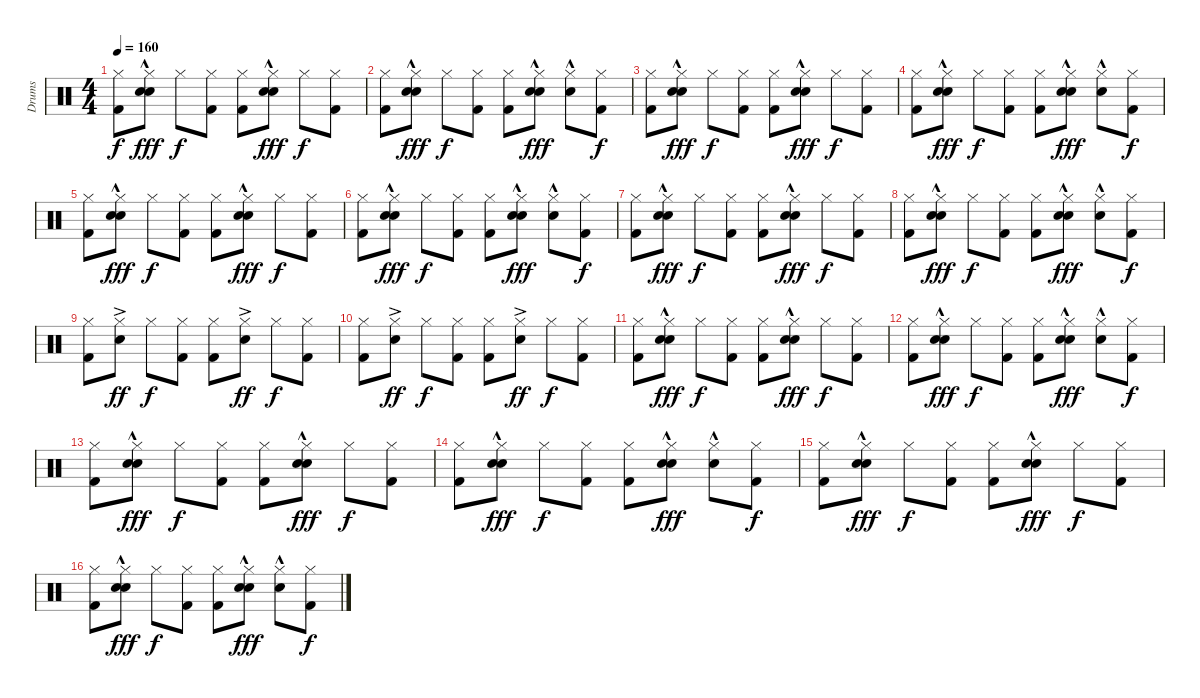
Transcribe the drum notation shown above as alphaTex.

\track ("Drums" "Drums") {instrument percussion}
\staff {score}
\articulation defaults
\ts (4 4)
\tempo 160
\clef neutral
\ks c
("Hi-Hat (closed)" "Kick (hit) 2").8{dy f} ("Hi-Hat (closed)" "Electric Snare (hit)" "Hand Clap (hit)"{hac}).8{dy fff} "Hi-Hat (closed)".8{dy f} ("Hi-Hat (closed)" "Kick (hit) 2").8 ("Hi-Hat (closed)" "Kick (hit) 2").8 ("Hi-Hat (closed)" "Electric Snare (hit)" "Hand Clap (hit)"{hac}).8{dy fff} "Hi-Hat (closed)".8{dy f} ("Hi-Hat (closed)" "Kick (hit) 2").8 |
("Hi-Hat (closed)" "Kick (hit) 2").8 ("Hi-Hat (closed)" "Electric Snare (hit)" "Hand Clap (hit)"{hac}).8{dy fff} "Hi-Hat (closed)".8{dy f} ("Hi-Hat (closed)" "Kick (hit) 2").8 ("Hi-Hat (closed)" "Kick (hit) 2").8 ("Hi-Hat (closed)" "Electric Snare (hit)" "Hand Clap (hit)"{hac}).8{dy fff} ("Hi-Hat (closed)" "Hand Clap (hit)"{hac}).8 ("Hi-Hat (closed)" "Kick (hit) 2").8{dy f} |
("Hi-Hat (closed)" "Kick (hit) 2").8 ("Hi-Hat (closed)" "Electric Snare (hit)" "Hand Clap (hit)"{hac}).8{dy fff} "Hi-Hat (closed)".8{dy f} ("Hi-Hat (closed)" "Kick (hit) 2").8 ("Hi-Hat (closed)" "Kick (hit) 2").8 ("Hi-Hat (closed)" "Electric Snare (hit)" "Hand Clap (hit)"{hac}).8{dy fff} "Hi-Hat (closed)".8{dy f} ("Hi-Hat (closed)" "Kick (hit) 2").8 |
("Hi-Hat (closed)" "Kick (hit) 2").8 ("Hi-Hat (closed)" "Electric Snare (hit)" "Hand Clap (hit)"{hac}).8{dy fff} "Hi-Hat (closed)".8{dy f} ("Hi-Hat (closed)" "Kick (hit) 2").8 ("Hi-Hat (closed)" "Kick (hit) 2").8 ("Hi-Hat (closed)" "Electric Snare (hit)" "Hand Clap (hit)"{hac}).8{dy fff} ("Hi-Hat (closed)" "Hand Clap (hit)"{hac}).8 ("Hi-Hat (closed)" "Kick (hit) 2").8{dy f} |
("Hi-Hat (closed)" "Kick (hit) 2").8 ("Hi-Hat (closed)" "Electric Snare (hit)" "Hand Clap (hit)"{hac}).8{dy fff} "Hi-Hat (closed)".8{dy f} ("Hi-Hat (closed)" "Kick (hit) 2").8 ("Hi-Hat (closed)" "Kick (hit) 2").8 ("Hi-Hat (closed)" "Electric Snare (hit)" "Hand Clap (hit)"{hac}).8{dy fff} "Hi-Hat (closed)".8{dy f} ("Hi-Hat (closed)" "Kick (hit) 2").8 |
("Hi-Hat (closed)" "Kick (hit) 2").8 ("Hi-Hat (closed)" "Electric Snare (hit)" "Hand Clap (hit)"{hac}).8{dy fff} "Hi-Hat (closed)".8{dy f} ("Hi-Hat (closed)" "Kick (hit) 2").8 ("Hi-Hat (closed)" "Kick (hit) 2").8 ("Hi-Hat (closed)" "Electric Snare (hit)" "Hand Clap (hit)"{hac}).8{dy fff} ("Hi-Hat (closed)" "Hand Clap (hit)"{hac}).8 ("Hi-Hat (closed)" "Kick (hit) 2").8{dy f} |
("Hi-Hat (closed)" "Kick (hit) 2").8 ("Hi-Hat (closed)" "Electric Snare (hit)" "Hand Clap (hit)"{hac}).8{dy fff} "Hi-Hat (closed)".8{dy f} ("Hi-Hat (closed)" "Kick (hit) 2").8 ("Hi-Hat (closed)" "Kick (hit) 2").8 ("Hi-Hat (closed)" "Electric Snare (hit)" "Hand Clap (hit)"{hac}).8{dy fff} "Hi-Hat (closed)".8{dy f} ("Hi-Hat (closed)" "Kick (hit) 2").8 |
("Hi-Hat (closed)" "Kick (hit) 2").8 ("Hi-Hat (closed)" "Electric Snare (hit)" "Hand Clap (hit)"{hac}).8{dy fff} "Hi-Hat (closed)".8{dy f} ("Hi-Hat (closed)" "Kick (hit) 2").8 ("Hi-Hat (closed)" "Kick (hit) 2").8 ("Hi-Hat (closed)" "Electric Snare (hit)" "Hand Clap (hit)"{hac}).8{dy fff} ("Hi-Hat (closed)" "Hand Clap (hit)"{hac}).8 ("Hi-Hat (closed)" "Kick (hit) 2").8{dy f} |
("Hi-Hat (closed)" "Kick (hit) 2").8 ("Hi-Hat (closed)" "Electric Snare (hit)"{ac}).8{dy ff} "Hi-Hat (closed)".8{dy f} ("Hi-Hat (closed)" "Kick (hit) 2").8 ("Hi-Hat (closed)" "Kick (hit) 2").8 ("Hi-Hat (closed)" "Electric Snare (hit)"{ac}).8{dy ff} "Hi-Hat (closed)".8{dy f} ("Hi-Hat (closed)" "Kick (hit) 2").8 |
("Hi-Hat (closed)" "Kick (hit) 2").8 ("Hi-Hat (closed)" "Electric Snare (hit)"{ac}).8{dy ff} "Hi-Hat (closed)".8{dy f} ("Hi-Hat (closed)" "Kick (hit) 2").8 ("Hi-Hat (closed)" "Kick (hit) 2").8 ("Hi-Hat (closed)" "Electric Snare (hit)"{ac}).8{dy ff} "Hi-Hat (closed)".8{dy f} ("Hi-Hat (closed)" "Kick (hit) 2").8 |
("Hi-Hat (closed)" "Kick (hit) 2").8 ("Hi-Hat (closed)" "Electric Snare (hit)" "Hand Clap (hit)"{hac}).8{dy fff} "Hi-Hat (closed)".8{dy f} ("Hi-Hat (closed)" "Kick (hit) 2").8 ("Hi-Hat (closed)" "Kick (hit) 2").8 ("Hi-Hat (closed)" "Electric Snare (hit)" "Hand Clap (hit)"{hac}).8{dy fff} "Hi-Hat (closed)".8{dy f} ("Hi-Hat (closed)" "Kick (hit) 2").8 |
("Hi-Hat (closed)" "Kick (hit) 2").8 ("Hi-Hat (closed)" "Electric Snare (hit)" "Hand Clap (hit)"{hac}).8{dy fff} "Hi-Hat (closed)".8{dy f} ("Hi-Hat (closed)" "Kick (hit) 2").8 ("Hi-Hat (closed)" "Kick (hit) 2").8 ("Hi-Hat (closed)" "Electric Snare (hit)" "Hand Clap (hit)"{hac}).8{dy fff} ("Hi-Hat (closed)" "Hand Clap (hit)"{hac}).8 ("Hi-Hat (closed)" "Kick (hit) 2").8{dy f} |
("Hi-Hat (closed)" "Kick (hit) 2").8 ("Hi-Hat (closed)" "Electric Snare (hit)" "Hand Clap (hit)"{hac}).8{dy fff} "Hi-Hat (closed)".8{dy f} ("Hi-Hat (closed)" "Kick (hit) 2").8 ("Hi-Hat (closed)" "Kick (hit) 2").8 ("Hi-Hat (closed)" "Electric Snare (hit)" "Hand Clap (hit)"{hac}).8{dy fff} "Hi-Hat (closed)".8{dy f} ("Hi-Hat (closed)" "Kick (hit) 2").8 |
("Hi-Hat (closed)" "Kick (hit) 2").8 ("Hi-Hat (closed)" "Electric Snare (hit)" "Hand Clap (hit)"{hac}).8{dy fff} "Hi-Hat (closed)".8{dy f} ("Hi-Hat (closed)" "Kick (hit) 2").8 ("Hi-Hat (closed)" "Kick (hit) 2").8 ("Hi-Hat (closed)" "Electric Snare (hit)" "Hand Clap (hit)"{hac}).8{dy fff} ("Hi-Hat (closed)" "Hand Clap (hit)"{hac}).8 ("Hi-Hat (closed)" "Kick (hit) 2").8{dy f} |
("Hi-Hat (closed)" "Kick (hit) 2").8 ("Hi-Hat (closed)" "Electric Snare (hit)" "Hand Clap (hit)"{hac}).8{dy fff} "Hi-Hat (closed)".8{dy f} ("Hi-Hat (closed)" "Kick (hit) 2").8 ("Hi-Hat (closed)" "Kick (hit) 2").8 ("Hi-Hat (closed)" "Electric Snare (hit)" "Hand Clap (hit)"{hac}).8{dy fff} "Hi-Hat (closed)".8{dy f} ("Hi-Hat (closed)" "Kick (hit) 2").8 |
("Hi-Hat (closed)" "Kick (hit) 2").8 ("Hi-Hat (closed)" "Electric Snare (hit)" "Hand Clap (hit)"{hac}).8{dy fff} "Hi-Hat (closed)".8{dy f} ("Hi-Hat (closed)" "Kick (hit) 2").8 ("Hi-Hat (closed)" "Kick (hit) 2").8 ("Hi-Hat (closed)" "Electric Snare (hit)" "Hand Clap (hit)"{hac}).8{dy fff} ("Hi-Hat (closed)" "Hand Clap (hit)"{hac}).8 ("Hi-Hat (closed)" "Kick (hit) 2").8{dy f}
